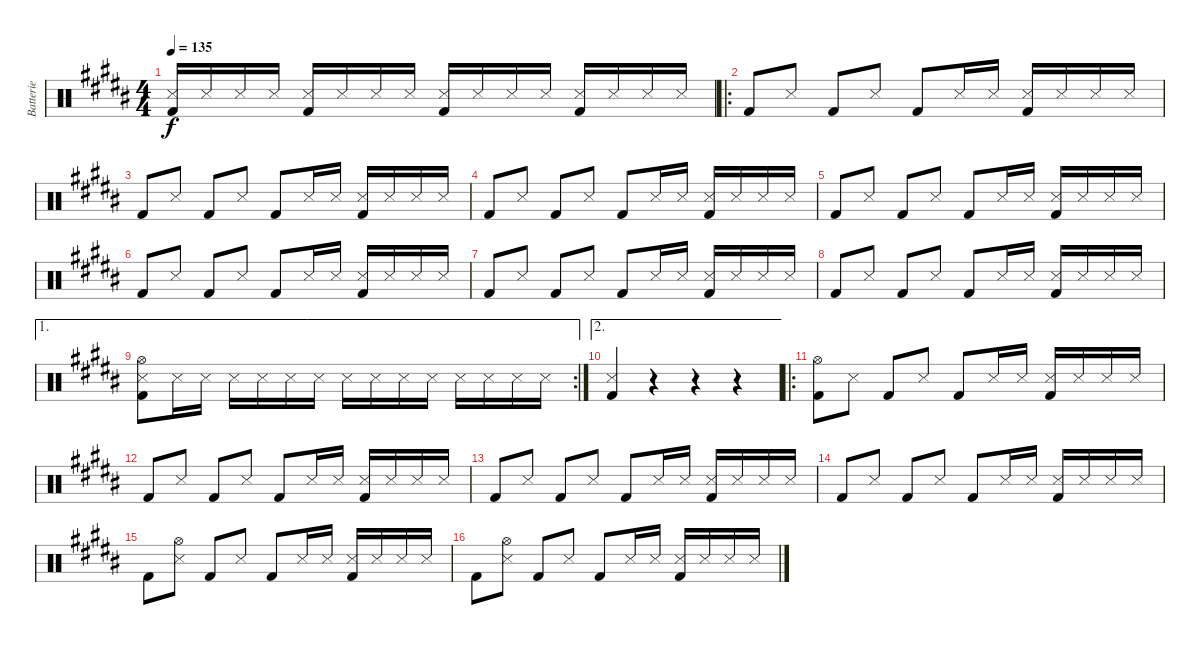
\track ("Batterie" "Batterie") {instrument percussion}
\staff {score}
\articulation defaults
\ts (4 4)
\tempo 135
\clef neutral
\ks b
("Snare (side stick) 3" "Kick (hit) 2").16{dy f} "Snare (side stick) 3".16 "Snare (side stick) 3".16 "Snare (side stick) 3".16 ("Snare (side stick) 3" "Kick (hit) 2").16 "Snare (side stick) 3".16 "Snare (side stick) 3".16 "Snare (side stick) 3".16 ("Snare (side stick) 3" "Kick (hit) 2").16 "Snare (side stick) 3".16 "Snare (side stick) 3".16 "Snare (side stick) 3".16 ("Snare (side stick) 3" "Kick (hit) 2").16 "Snare (side stick) 3".16 "Snare (side stick) 3".16 "Snare (side stick) 3".16 |
\ro "Kick (hit) 2".8 "Snare (side stick) 3".8 "Kick (hit) 2".8 "Snare (side stick) 3".8 "Kick (hit) 2".8 "Snare (side stick) 3".16 "Snare (side stick) 3".16
("Snare (side stick) 3" "Kick (hit) 2").16 "Snare (side stick) 3".16 "Snare (side stick) 3".16 "Snare (side stick) 3".16 |
"Kick (hit) 2".8 "Snare (side stick) 3".8 "Kick (hit) 2".8 "Snare (side stick) 3".8 "Kick (hit) 2".8 "Snare (side stick) 3".16 "Snare (side stick) 3".16 ("Snare (side stick) 3" "Kick (hit) 2").16 "Snare (side stick) 3".16 "Snare (side stick) 3".16 "Snare (side stick) 3".16 |
"Kick (hit) 2".8 "Snare (side stick) 3".8 "Kick (hit) 2".8 "Snare (side stick) 3".8 "Kick (hit) 2".8 "Snare (side stick) 3".16 "Snare (side stick) 3".16 ("Snare (side stick) 3" "Kick (hit) 2").16 "Snare (side stick) 3".16 "Snare (side stick) 3".16 "Snare (side stick) 3".16 |
"Kick (hit) 2".8 "Snare (side stick) 3".8 "Kick (hit) 2".8 "Snare (side stick) 3".8 "Kick (hit) 2".8 "Snare (side stick) 3".16 "Snare (side stick) 3".16 ("Snare (side stick) 3" "Kick (hit) 2").16 "Snare (side stick) 3".16 "Snare (side stick) 3".16 "Snare (side stick) 3".16 |
"Kick (hit) 2".8 "Snare (side stick) 3".8 "Kick (hit) 2".8 "Snare (side stick) 3".8 "Kick (hit) 2".8 "Snare (side stick) 3".16 "Snare (side stick) 3".16 ("Snare (side stick) 3" "Kick (hit) 2").16 "Snare (side stick) 3".16 "Snare (side stick) 3".16 "Snare (side stick) 3".16 |
"Kick (hit) 2".8 "Snare (side stick) 3".8 "Kick (hit) 2".8 "Snare (side stick) 3".8 "Kick (hit) 2".8 "Snare (side stick) 3".16 "Snare (side stick) 3".16 ("Snare (side stick) 3" "Kick (hit) 2").16 "Snare (side stick) 3".16 "Snare (side stick) 3".16 "Snare (side stick) 3".16 |
"Kick (hit) 2".8 "Snare (side stick) 3".8 "Kick (hit) 2".8 "Snare (side stick) 3".8 "Kick (hit) 2".8 "Snare (side stick) 3".16 "Snare (side stick) 3".16 ("Snare (side stick) 3" "Kick (hit) 2").16 "Snare (side stick) 3".16 "Snare (side stick) 3".16 "Snare (side stick) 3".16 |
\ae 1
\rc 2
("Hi-Hat (open)" "Snare (side stick) 3" "Kick (hit) 2").8 "Snare (side stick) 3".16 "Snare (side stick) 3".16 "Snare (side stick) 3".16 "Snare (side stick) 3".16 "Snare (side stick) 3".16 "Snare (side stick) 3".16 "Snare (side stick) 3".16 "Snare (side stick) 3".16 "Snare (side stick) 3".16 "Snare (side stick) 3".16 "Snare (side stick) 3".16 "Snare (side stick) 3".16 "Snare (side stick) 3".16 "Snare (side stick) 3".16 |
\ae 2
("Snare (side stick) 3" "Kick (hit) 2").4 r.4 r.4 r.4 |
\ro
("Hi-Hat (open)" "Kick (hit) 2").8 "Snare (side stick) 3".8 "Kick (hit) 2".8 "Snare (side stick) 3".8 "Kick (hit) 2".8 "Snare (side stick) 3".16 "Snare (side stick) 3".16 ("Snare (side stick) 3" "Kick (hit) 2").16 "Snare (side stick) 3".16 "Snare (side stick) 3".16 "Snare (side stick) 3".16 |
"Kick (hit) 2".8 "Snare (side stick) 3".8 "Kick (hit) 2".8 "Snare (side stick) 3".8 "Kick (hit) 2".8 "Snare (side stick) 3".16 "Snare (side stick) 3".16 ("Snare (side stick) 3" "Kick (hit) 2").16 "Snare (side stick) 3".16 "Snare (side stick) 3".16 "Snare (side stick) 3".16 |
"Kick (hit) 2".8 "Snare (side stick) 3".8 "Kick (hit) 2".8 "Snare (side stick) 3".8 "Kick (hit) 2".8 "Snare (side stick) 3".16 "Snare (side stick) 3".16 ("Snare (side stick) 3" "Kick (hit) 2").16 "Snare (side stick) 3".16 "Snare (side stick) 3".16 "Snare (side stick) 3".16 |
"Kick (hit) 2".8 "Snare (side stick) 3".8 "Kick (hit) 2".8 "Snare (side stick) 3".8 "Kick (hit) 2".8 "Snare (side stick) 3".16 "Snare (side stick) 3".16 ("Snare (side stick) 3" "Kick (hit) 2").16 "Snare (side stick) 3".16 "Snare (side stick) 3".16 "Snare (side stick) 3".16 |
"Kick (hit) 2".8 ("Hi-Hat (open)" "Snare (side stick) 3").8 "Kick (hit) 2".8 "Snare (side stick) 3".8 "Kick (hit) 2".8 "Snare (side stick) 3".16 "Snare (side stick) 3".16 ("Snare (side stick) 3" "Kick (hit) 2").16 "Snare (side stick) 3".16 "Snare (side stick) 3".16 "Snare (side stick) 3".16 |
"Kick (hit) 2".8 ("Hi-Hat (open)" "Snare (side stick) 3").8 "Kick (hit) 2".8 "Snare (side stick) 3".8 "Kick (hit) 2".8 "Snare (side stick) 3".16 "Snare (side stick) 3".16 ("Snare (side stick) 3" "Kick (hit) 2").16 "Snare (side stick) 3".16 "Snare (side stick) 3".16 "Snare (side stick) 3".16
